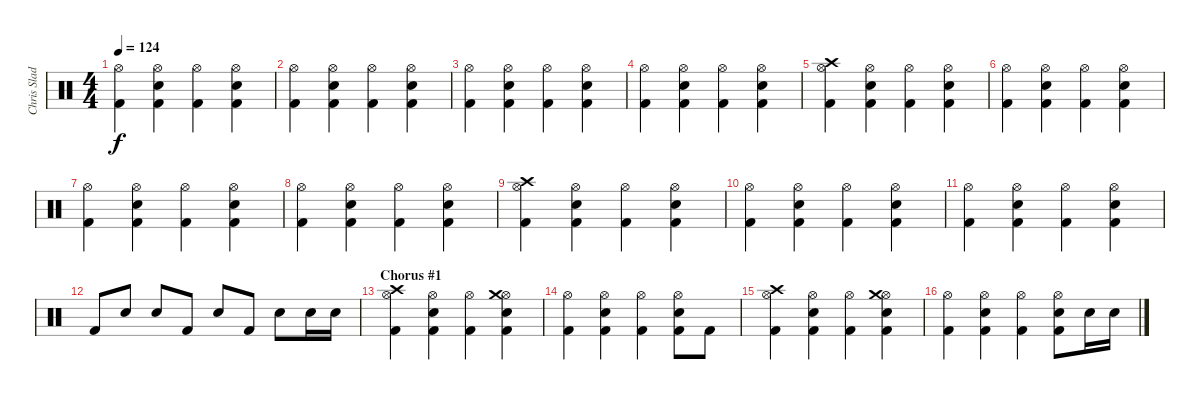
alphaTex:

\track ("Chris Slade" "Chris Slad") {instrument percussion}
\staff {score}
\articulation defaults
\ts (4 4)
\tempo 124
\clef neutral
\ks c
("Hi-Hat (open)" "Kick (hit) 2").4{dy f} ("Hi-Hat (open)" "Snare (hit) 2" "Kick (hit) 2").4 ("Hi-Hat (open)" "Kick (hit) 2").4 ("Hi-Hat (open)" "Snare (hit) 2" "Kick (hit) 2").4 |
("Hi-Hat (open)" "Kick (hit) 2").4 ("Hi-Hat (open)" "Snare (hit) 2" "Kick (hit) 2").4 ("Hi-Hat (open)" "Kick (hit) 2").4 ("Hi-Hat (open)" "Snare (hit) 2" "Kick (hit) 2").4 |
("Hi-Hat (open)" "Kick (hit) 2").4 ("Hi-Hat (open)" "Snare (hit) 2" "Kick (hit) 2").4 ("Hi-Hat (open)" "Kick (hit) 2").4 ("Hi-Hat (open)" "Snare (hit) 2" "Kick (hit) 2").4 |
("Hi-Hat (open)" "Kick (hit) 2").4 ("Hi-Hat (open)" "Snare (hit) 2" "Kick (hit) 2").4 ("Hi-Hat (open)" "Kick (hit) 2").4 ("Hi-Hat (open)" "Snare (hit) 2" "Kick (hit) 2").4 |
("Hi-Hat (open)" "Crash high (hit)" "Kick (hit) 2").4 ("Hi-Hat (open)" "Snare (hit) 2" "Kick (hit) 2").4 ("Hi-Hat (open)" "Kick (hit) 2").4 ("Hi-Hat (open)" "Snare (hit) 2" "Kick (hit) 2").4 |
("Hi-Hat (open)" "Kick (hit) 2").4 ("Hi-Hat (open)" "Snare (hit) 2" "Kick (hit) 2").4 ("Hi-Hat (open)" "Kick (hit) 2").4 ("Hi-Hat (open)" "Snare (hit) 2" "Kick (hit) 2").4 |
("Hi-Hat (open)" "Kick (hit) 2").4 ("Hi-Hat (open)" "Snare (hit) 2" "Kick (hit) 2").4 ("Hi-Hat (open)" "Kick (hit) 2").4 ("Hi-Hat (open)" "Snare (hit) 2" "Kick (hit) 2").4 |
("Hi-Hat (open)" "Kick (hit) 2").4 ("Hi-Hat (open)" "Snare (hit) 2" "Kick (hit) 2").4 ("Hi-Hat (open)" "Kick (hit) 2").4 ("Hi-Hat (open)" "Snare (hit) 2" "Kick (hit) 2").4 |
("Hi-Hat (open)" "Crash high (hit)" "Kick (hit) 2").4 ("Hi-Hat (open)" "Snare (hit) 2" "Kick (hit) 2").4 ("Hi-Hat (open)" "Kick (hit) 2").4 ("Hi-Hat (open)" "Snare (hit) 2" "Kick (hit) 2").4 |
("Hi-Hat (open)" "Kick (hit) 2").4 ("Hi-Hat (open)" "Snare (hit) 2" "Kick (hit) 2").4 ("Hi-Hat (open)" "Kick (hit) 2").4 ("Hi-Hat (open)" "Snare (hit) 2" "Kick (hit) 2").4 |
("Hi-Hat (open)" "Kick (hit) 2").4 ("Hi-Hat (open)" "Snare (hit) 2" "Kick (hit) 2").4 ("Hi-Hat (open)" "Kick (hit) 2").4 ("Hi-Hat (open)" "Snare (hit) 2" "Kick (hit) 2").4 |
"Kick (hit) 2".8 "Snare (hit) 2".8 "Snare (hit) 2".8 "Kick (hit) 2".8 "Snare (hit) 2".8 "Kick (hit) 2".8 "Snare (hit) 2".8 "Snare (hit) 2".16 "Snare (hit) 2".16 |
\section ("" "Chorus #1")
("Hi-Hat (open)" "Crash high (hit)" "Kick (hit) 2").4 ("Hi-Hat (open)" "Snare (hit) 2" "Kick (hit) 2").4 ("Hi-Hat (open)" "Kick (hit) 2").4 ("Hi-Hat (open)" "Crash medium (hit)" "Snare (hit) 2" "Kick (hit) 2").4 |
("Hi-Hat (open)" "Kick (hit) 2").4 ("Hi-Hat (open)" "Snare (hit) 2" "Kick (hit) 2").4 ("Hi-Hat (open)" "Kick (hit) 2").4 ("Hi-Hat (open)" "Snare (hit) 2" "Kick (hit) 2").8 "Kick (hit) 2".8 |
("Hi-Hat (open)" "Crash high (hit)" "Kick (hit) 2").4 ("Hi-Hat (open)" "Snare (hit) 2" "Kick (hit) 2").4 ("Hi-Hat (open)" "Kick (hit) 2").4 ("Hi-Hat (open)" "Crash medium (hit)" "Snare (hit) 2" "Kick (hit) 2").4 |
("Hi-Hat (open)" "Kick (hit) 2").4 ("Hi-Hat (open)" "Snare (hit) 2" "Kick (hit) 2").4 ("Hi-Hat (open)" "Kick (hit) 2").4 ("Hi-Hat (open)" "Snare (hit) 2" "Kick (hit) 2").8 "Snare (hit) 2".16 "Snare (hit) 2".16
